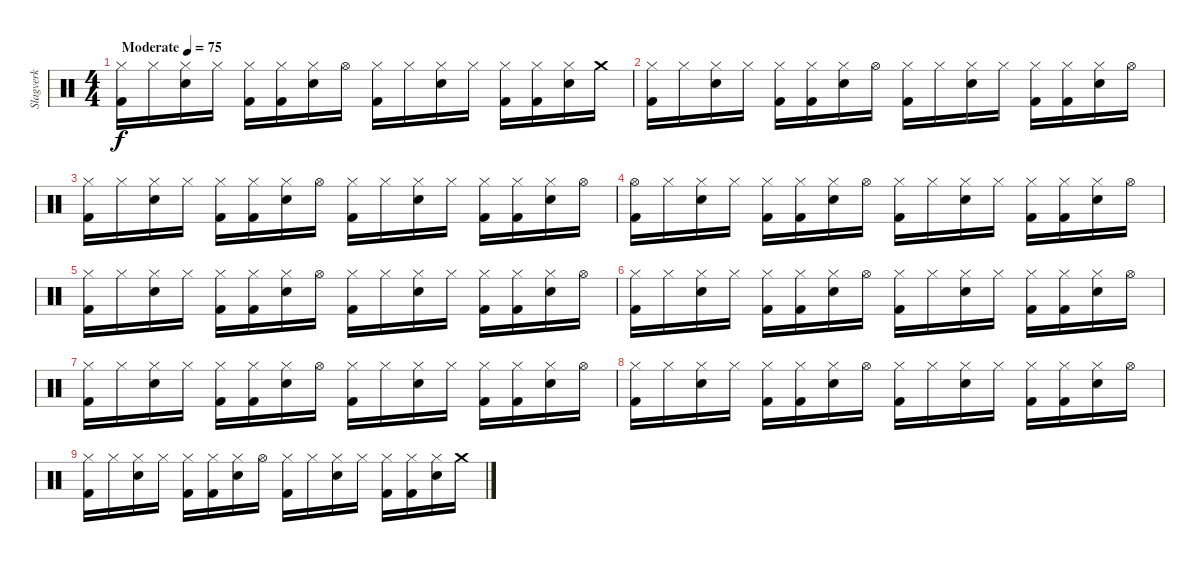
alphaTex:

\track ("Slagverk" "Slagverk") {instrument percussion}
\staff {score}
\articulation defaults
\ts (4 4)
\tempo (75 "Moderate")
\clef neutral
\ks c
("Hi-Hat (closed)" "Kick (hit) 2").16{dy f} "Hi-Hat (closed)".16 ("Hi-Hat (closed)" "Snare (hit) 2").16 "Hi-Hat (closed)".16 ("Hi-Hat (closed)" "Kick (hit) 2").16 ("Hi-Hat (closed)" "Kick (hit) 2").16 ("Hi-Hat (closed)" "Snare (hit) 2").16 "Hi-Hat (open)".16 ("Hi-Hat (closed)" "Kick (hit) 2").16 "Hi-Hat (closed)".16 ("Hi-Hat (closed)" "Snare (hit) 2").16 "Hi-Hat (closed)".16 ("Hi-Hat (closed)" "Kick (hit) 2").16 ("Hi-Hat (closed)" "Kick (hit) 2").16 ("Hi-Hat (closed)" "Snare (hit) 2").16 "Crash medium (hit)".16 |
("Hi-Hat (closed)" "Kick (hit) 2").16 "Hi-Hat (closed)".16 ("Hi-Hat (closed)" "Snare (hit) 2").16 "Hi-Hat (closed)".16 ("Hi-Hat (closed)" "Kick (hit) 2").16 ("Hi-Hat (closed)" "Kick (hit) 2").16 ("Hi-Hat (closed)" "Snare (hit) 2").16 "Hi-Hat (open)".16 ("Hi-Hat (closed)" "Kick (hit) 2").16 "Hi-Hat (closed)".16 ("Hi-Hat (closed)" "Snare (hit) 2").16 "Hi-Hat (closed)".16 ("Hi-Hat (closed)" "Kick (hit) 2").16 ("Hi-Hat (closed)" "Kick (hit) 2").16 ("Hi-Hat (closed)" "Snare (hit) 2").16 "Hi-Hat (open)".16 |
("Hi-Hat (closed)" "Kick (hit) 2").16 "Hi-Hat (closed)".16 ("Hi-Hat (closed)" "Snare (hit) 2").16 "Hi-Hat (closed)".16 ("Hi-Hat (closed)" "Kick (hit) 2").16 ("Hi-Hat (closed)" "Kick (hit) 2").16 ("Hi-Hat (closed)" "Snare (hit) 2").16 "Hi-Hat (open)".16 ("Hi-Hat (closed)" "Kick (hit) 2").16 "Hi-Hat (closed)".16 ("Hi-Hat (closed)" "Snare (hit) 2").16 "Hi-Hat (closed)".16 ("Hi-Hat (closed)" "Kick (hit) 2").16 ("Hi-Hat (closed)" "Kick (hit) 2").16 ("Hi-Hat (closed)" "Snare (hit) 2").16 "Hi-Hat (open)".16 |
("Hi-Hat (open)" "Kick (hit) 2").16 "Hi-Hat (closed)".16 ("Hi-Hat (closed)" "Snare (hit) 2").16 "Hi-Hat (closed)".16 ("Hi-Hat (closed)" "Kick (hit) 2").16 ("Hi-Hat (closed)" "Kick (hit) 2").16 ("Hi-Hat (closed)" "Snare (hit) 2").16 "Hi-Hat (open)".16 ("Hi-Hat (closed)" "Kick (hit) 2").16 "Hi-Hat (closed)".16 ("Hi-Hat (closed)" "Snare (hit) 2").16 "Hi-Hat (closed)".16 ("Hi-Hat (closed)" "Kick (hit) 2").16 ("Hi-Hat (closed)" "Kick (hit) 2").16 ("Hi-Hat (closed)" "Snare (hit) 2").16 "Hi-Hat (open)".16 |
("Hi-Hat (closed)" "Kick (hit) 2").16 "Hi-Hat (closed)".16 ("Hi-Hat (closed)" "Snare (hit) 2").16 "Hi-Hat (closed)".16 ("Hi-Hat (closed)" "Kick (hit) 2").16 ("Hi-Hat (closed)" "Kick (hit) 2").16 ("Hi-Hat (closed)" "Snare (hit) 2").16 "Hi-Hat (open)".16 ("Hi-Hat (closed)" "Kick (hit) 2").16 "Hi-Hat (closed)".16 ("Hi-Hat (closed)" "Snare (hit) 2").16 "Hi-Hat (closed)".16 ("Hi-Hat (closed)" "Kick (hit) 2").16 ("Hi-Hat (closed)" "Kick (hit) 2").16 ("Hi-Hat (closed)" "Snare (hit) 2").16 "Hi-Hat (open)".16 |
("Hi-Hat (closed)" "Kick (hit) 2").16 "Hi-Hat (closed)".16 ("Hi-Hat (closed)" "Snare (hit) 2").16 "Hi-Hat (closed)".16 ("Hi-Hat (closed)" "Kick (hit) 2").16 ("Hi-Hat (closed)" "Kick (hit) 2").16 ("Hi-Hat (closed)" "Snare (hit) 2").16 "Hi-Hat (open)".16 ("Hi-Hat (closed)" "Kick (hit) 2").16 "Hi-Hat (closed)".16 ("Hi-Hat (closed)" "Snare (hit) 2").16 "Hi-Hat (closed)".16 ("Hi-Hat (closed)" "Kick (hit) 2").16 ("Hi-Hat (closed)" "Kick (hit) 2").16 ("Hi-Hat (closed)" "Snare (hit) 2").16 "Hi-Hat (open)".16 |
("Hi-Hat (closed)" "Kick (hit) 2").16 "Hi-Hat (closed)".16 ("Hi-Hat (closed)" "Snare (hit) 2").16 "Hi-Hat (closed)".16 ("Hi-Hat (closed)" "Kick (hit) 2").16 ("Hi-Hat (closed)" "Kick (hit) 2").16 ("Hi-Hat (closed)" "Snare (hit) 2").16 "Hi-Hat (open)".16 ("Hi-Hat (closed)" "Kick (hit) 2").16 "Hi-Hat (closed)".16 ("Hi-Hat (closed)" "Snare (hit) 2").16 "Hi-Hat (closed)".16 ("Hi-Hat (closed)" "Kick (hit) 2").16 ("Hi-Hat (closed)" "Kick (hit) 2").16 ("Hi-Hat (closed)" "Snare (hit) 2").16 "Hi-Hat (open)".16 |
("Hi-Hat (closed)" "Kick (hit) 2").16 "Hi-Hat (closed)".16 ("Hi-Hat (closed)" "Snare (hit) 2").16 "Hi-Hat (closed)".16 ("Hi-Hat (closed)" "Kick (hit) 2").16 ("Hi-Hat (closed)" "Kick (hit) 2").16 ("Hi-Hat (closed)" "Snare (hit) 2").16 "Hi-Hat (open)".16 ("Hi-Hat (closed)" "Kick (hit) 2").16 "Hi-Hat (closed)".16 ("Hi-Hat (closed)" "Snare (hit) 2").16 "Hi-Hat (closed)".16 ("Hi-Hat (closed)" "Kick (hit) 2").16 ("Hi-Hat (closed)" "Kick (hit) 2").16 ("Hi-Hat (closed)" "Snare (hit) 2").16 "Hi-Hat (open)".16 |
("Hi-Hat (closed)" "Kick (hit) 2").16 "Hi-Hat (closed)".16 ("Hi-Hat (closed)" "Snare (hit) 2").16 "Hi-Hat (closed)".16 ("Hi-Hat (closed)" "Kick (hit) 2").16 ("Hi-Hat (closed)" "Kick (hit) 2").16 ("Hi-Hat (closed)" "Snare (hit) 2").16 "Hi-Hat (open)".16 ("Hi-Hat (closed)" "Kick (hit) 2").16 "Hi-Hat (closed)".16 ("Hi-Hat (closed)" "Snare (hit) 2").16 "Hi-Hat (closed)".16 ("Hi-Hat (closed)" "Kick (hit) 2").16 ("Hi-Hat (closed)" "Kick (hit) 2").16 ("Hi-Hat (closed)" "Snare (hit) 2").16 "Crash medium (hit)".16
